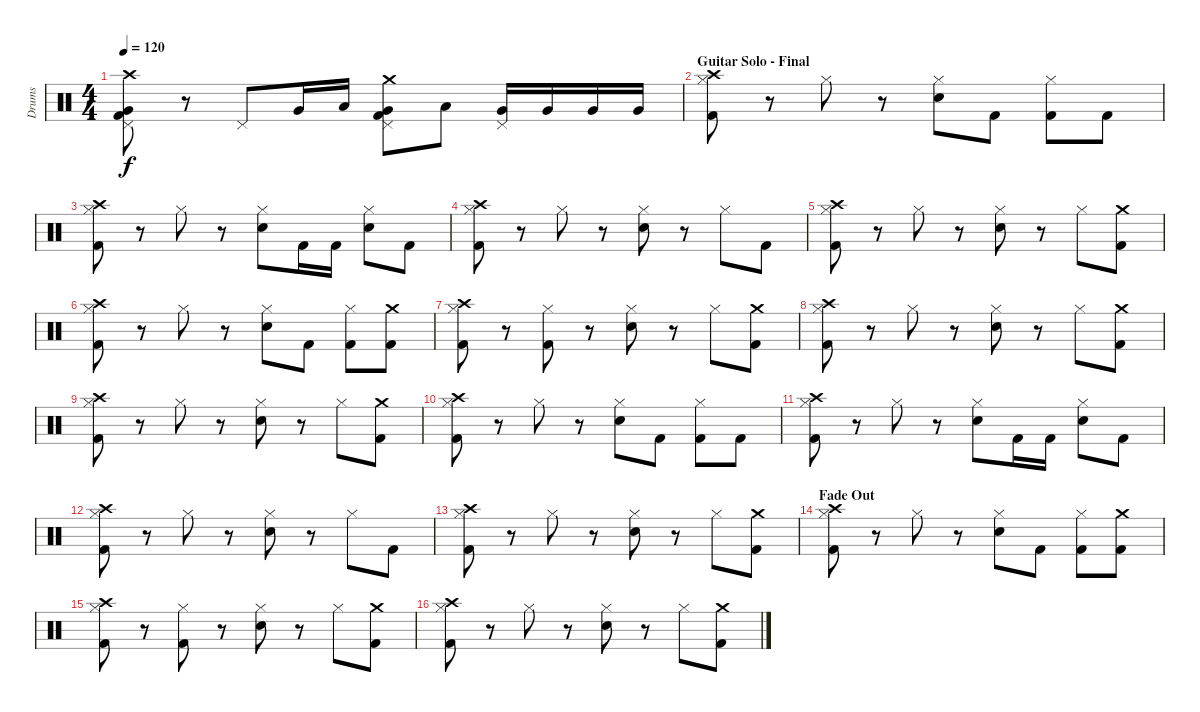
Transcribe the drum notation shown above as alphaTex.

\track ("Drums" "Drums") {instrument percussion}
\staff {score}
\articulation defaults
\ts (4 4)
\tempo 120
\clef neutral
\ks c
("Pedal Hi-Hat (hit)" "Very Low Tom (hit)" "Kick (hit) 2" "Crash high (hit)").8{dy f} r.8 "Pedal Hi-Hat (hit)".8 "Very Low Tom (hit)".16 "Low Tom (hit)".16 ("Pedal Hi-Hat (hit)" "Very Low Tom (hit)" "Kick (hit) 2" "Crash medium (hit)").8 "Low Tom (hit)".8 ("Pedal Hi-Hat (hit)" "Very Low Tom (hit)").16 "Very Low Tom (hit)".16 "Very Low Tom (hit)".16 "Very Low Tom (hit)".16 |
\section ("" "Guitar Solo - Final")
("Hi-Hat (closed)" "Kick (hit) 2" "Crash high (hit)").8 r.8 "Hi-Hat (closed)".8 r.8 ("Hi-Hat (closed)" "Snare (hit) 2").8 "Kick (hit) 2".8 ("Hi-Hat (closed)" "Kick (hit) 2").8 "Kick (hit) 2".8 |
("Hi-Hat (closed)" "Kick (hit) 2" "Crash high (hit)").8 r.8 "Hi-Hat (closed)".8 r.8 ("Hi-Hat (closed)" "Snare (hit) 2").8 "Kick (hit) 2".16 "Kick (hit) 2".16 ("Hi-Hat (closed)" "Snare (hit) 2").8 "Kick (hit) 2".8 |
("Hi-Hat (closed)" "Kick (hit) 2" "Crash high (hit)").8 r.8 "Hi-Hat (closed)".8 r.8 ("Hi-Hat (closed)" "Snare (hit) 2").8 r.8 "Hi-Hat (closed)".8 "Kick (hit) 2".8 |
("Hi-Hat (closed)" "Kick (hit) 2" "Crash high (hit)").8 r.8 "Hi-Hat (closed)".8 r.8 ("Hi-Hat (closed)" "Snare (hit) 2").8 r.8 "Hi-Hat (closed)".8 ("Kick (hit) 2" "Crash medium (hit)").8 |
("Hi-Hat (closed)" "Kick (hit) 2" "Crash high (hit)").8 r.8 "Hi-Hat (closed)".8 r.8 ("Hi-Hat (closed)" "Snare (hit) 2").8 "Kick (hit) 2".8 ("Hi-Hat (closed)" "Kick (hit) 2").8 ("Kick (hit) 2" "Crash medium (hit)").8 |
("Hi-Hat (closed)" "Kick (hit) 2" "Crash high (hit)").8 r.8 ("Hi-Hat (closed)" "Kick (hit) 2").8 r.8 ("Hi-Hat (closed)" "Snare (hit) 2").8 r.8 "Hi-Hat (closed)".8 ("Kick (hit) 2" "Crash medium (hit)").8 |
("Hi-Hat (closed)" "Kick (hit) 2" "Crash high (hit)").8 r.8 "Hi-Hat (closed)".8 r.8 ("Hi-Hat (closed)" "Snare (hit) 2").8 r.8 "Hi-Hat (closed)".8 ("Kick (hit) 2" "Crash medium (hit)").8 |
("Hi-Hat (closed)" "Kick (hit) 2" "Crash high (hit)").8 r.8 "Hi-Hat (closed)".8 r.8 ("Hi-Hat (closed)" "Snare (hit) 2").8 r.8 "Hi-Hat (closed)".8 ("Kick (hit) 2" "Crash medium (hit)").8 |
("Hi-Hat (closed)" "Kick (hit) 2" "Crash high (hit)").8 r.8 "Hi-Hat (closed)".8 r.8 ("Hi-Hat (closed)" "Snare (hit) 2").8 "Kick (hit) 2".8 ("Hi-Hat (closed)" "Kick (hit) 2").8 "Kick (hit) 2".8 |
("Hi-Hat (closed)" "Kick (hit) 2" "Crash high (hit)").8 r.8 "Hi-Hat (closed)".8 r.8 ("Hi-Hat (closed)" "Snare (hit) 2").8 "Kick (hit) 2".16 "Kick (hit) 2".16 ("Hi-Hat (closed)" "Snare (hit) 2").8 "Kick (hit) 2".8 |
("Hi-Hat (closed)" "Kick (hit) 2" "Crash high (hit)").8 r.8 "Hi-Hat (closed)".8 r.8 ("Hi-Hat (closed)" "Snare (hit) 2").8 r.8 "Hi-Hat (closed)".8 "Kick (hit) 2".8 |
("Hi-Hat (closed)" "Kick (hit) 2" "Crash high (hit)").8 r.8 "Hi-Hat (closed)".8 r.8 ("Hi-Hat (closed)" "Snare (hit) 2").8 r.8 "Hi-Hat (closed)".8 ("Kick (hit) 2" "Crash medium (hit)").8 |
\section ("" "Fade Out")
("Hi-Hat (closed)" "Kick (hit) 2" "Crash high (hit)").8 r.8 "Hi-Hat (closed)".8 r.8 ("Hi-Hat (closed)" "Snare (hit) 2").8 "Kick (hit) 2".8 ("Hi-Hat (closed)" "Kick (hit) 2").8 ("Kick (hit) 2" "Crash medium (hit)").8 |
("Hi-Hat (closed)" "Kick (hit) 2" "Crash high (hit)").8 r.8 ("Hi-Hat (closed)" "Kick (hit) 2").8 r.8 ("Hi-Hat (closed)" "Snare (hit) 2").8 r.8 "Hi-Hat (closed)".8 ("Kick (hit) 2" "Crash medium (hit)").8 |
("Hi-Hat (closed)" "Kick (hit) 2" "Crash high (hit)").8 r.8 "Hi-Hat (closed)".8 r.8 ("Hi-Hat (closed)" "Snare (hit) 2").8 r.8 "Hi-Hat (closed)".8 ("Kick (hit) 2" "Crash medium (hit)").8
